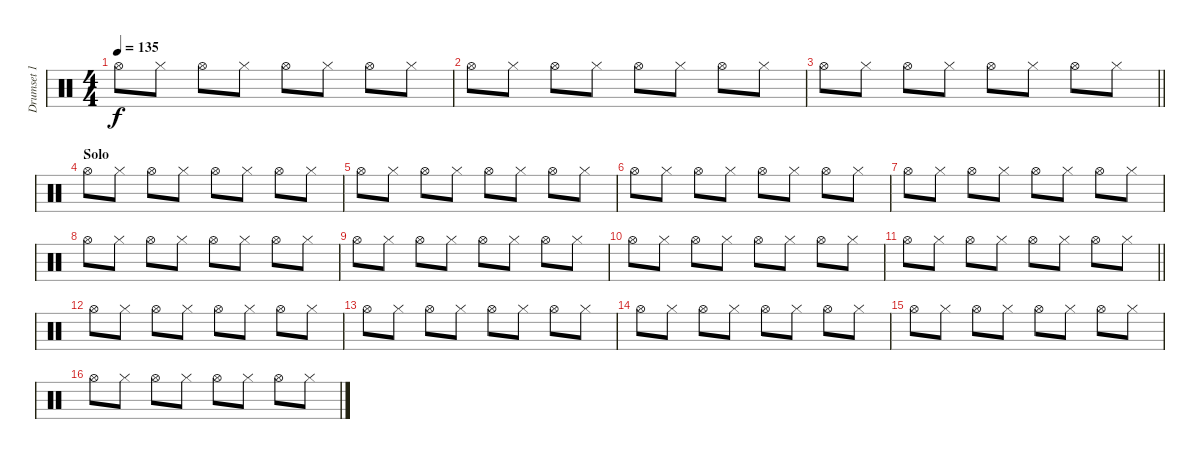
\track ("Drumset 1" "Drumset 1") {instrument percussion}
\staff {score}
\articulation defaults
\ts (4 4)
\tempo 135
\clef neutral
\ks c "Hi-Hat (open)".8{dy f} "Hi-Hat (closed)".8 "Hi-Hat (open)".8 "Hi-Hat (closed)".8 "Hi-Hat (open)".8 "Hi-Hat (closed)".8 "Hi-Hat (open)".8 "Hi-Hat (closed)".8
|
"Hi-Hat (open)".8 "Hi-Hat (closed)".8 "Hi-Hat (open)".8 "Hi-Hat (closed)".8 "Hi-Hat (open)".8 "Hi-Hat (closed)".8 "Hi-Hat (open)".8 "Hi-Hat (closed)".8 |
\barLineRight lightlight "Hi-Hat (open)".8 "Hi-Hat (closed)".8 "Hi-Hat (open)".8 "Hi-Hat (closed)".8 "Hi-Hat (open)".8 "Hi-Hat (closed)".8 "Hi-Hat (open)".8 "Hi-Hat (closed)".8
|
\section ("" "Solo")
"Hi-Hat (open)".8 "Hi-Hat (closed)".8 "Hi-Hat (open)".8 "Hi-Hat (closed)".8 "Hi-Hat (open)".8 "Hi-Hat (closed)".8 "Hi-Hat (open)".8 "Hi-Hat (closed)".8 |
"Hi-Hat (open)".8 "Hi-Hat (closed)".8 "Hi-Hat (open)".8 "Hi-Hat (closed)".8 "Hi-Hat (open)".8 "Hi-Hat (closed)".8 "Hi-Hat (open)".8 "Hi-Hat (closed)".8 |
"Hi-Hat (open)".8 "Hi-Hat (closed)".8 "Hi-Hat (open)".8 "Hi-Hat (closed)".8 "Hi-Hat (open)".8 "Hi-Hat (closed)".8 "Hi-Hat (open)".8 "Hi-Hat (closed)".8 |
"Hi-Hat (open)".8 "Hi-Hat (closed)".8 "Hi-Hat (open)".8 "Hi-Hat (closed)".8 "Hi-Hat (open)".8 "Hi-Hat (closed)".8 "Hi-Hat (open)".8 "Hi-Hat (closed)".8 |
"Hi-Hat (open)".8 "Hi-Hat (closed)".8 "Hi-Hat (open)".8 "Hi-Hat (closed)".8 "Hi-Hat (open)".8 "Hi-Hat (closed)".8 "Hi-Hat (open)".8 "Hi-Hat (closed)".8 |
"Hi-Hat (open)".8 "Hi-Hat (closed)".8 "Hi-Hat (open)".8 "Hi-Hat (closed)".8 "Hi-Hat (open)".8 "Hi-Hat (closed)".8 "Hi-Hat (open)".8 "Hi-Hat (closed)".8 |
"Hi-Hat (open)".8 "Hi-Hat (closed)".8 "Hi-Hat (open)".8 "Hi-Hat (closed)".8 "Hi-Hat (open)".8 "Hi-Hat (closed)".8 "Hi-Hat (open)".8 "Hi-Hat (closed)".8 |
\barLineRight lightlight "Hi-Hat (open)".8 "Hi-Hat (closed)".8 "Hi-Hat (open)".8 "Hi-Hat (closed)".8 "Hi-Hat (open)".8 "Hi-Hat (closed)".8 "Hi-Hat (open)".8 "Hi-Hat (closed)".8
|
"Hi-Hat (open)".8 "Hi-Hat (closed)".8 "Hi-Hat (open)".8 "Hi-Hat (closed)".8 "Hi-Hat (open)".8 "Hi-Hat (closed)".8 "Hi-Hat (open)".8 "Hi-Hat (closed)".8 |
"Hi-Hat (open)".8 "Hi-Hat (closed)".8 "Hi-Hat (open)".8 "Hi-Hat (closed)".8 "Hi-Hat (open)".8 "Hi-Hat (closed)".8 "Hi-Hat (open)".8 "Hi-Hat (closed)".8 |
"Hi-Hat (open)".8 "Hi-Hat (closed)".8 "Hi-Hat (open)".8 "Hi-Hat (closed)".8 "Hi-Hat (open)".8 "Hi-Hat (closed)".8 "Hi-Hat (open)".8 "Hi-Hat (closed)".8 |
"Hi-Hat (open)".8 "Hi-Hat (closed)".8 "Hi-Hat (open)".8 "Hi-Hat (closed)".8 "Hi-Hat (open)".8 "Hi-Hat (closed)".8 "Hi-Hat (open)".8 "Hi-Hat (closed)".8 |
"Hi-Hat (open)".8 "Hi-Hat (closed)".8 "Hi-Hat (open)".8 "Hi-Hat (closed)".8 "Hi-Hat (open)".8 "Hi-Hat (closed)".8 "Hi-Hat (open)".8 "Hi-Hat (closed)".8
